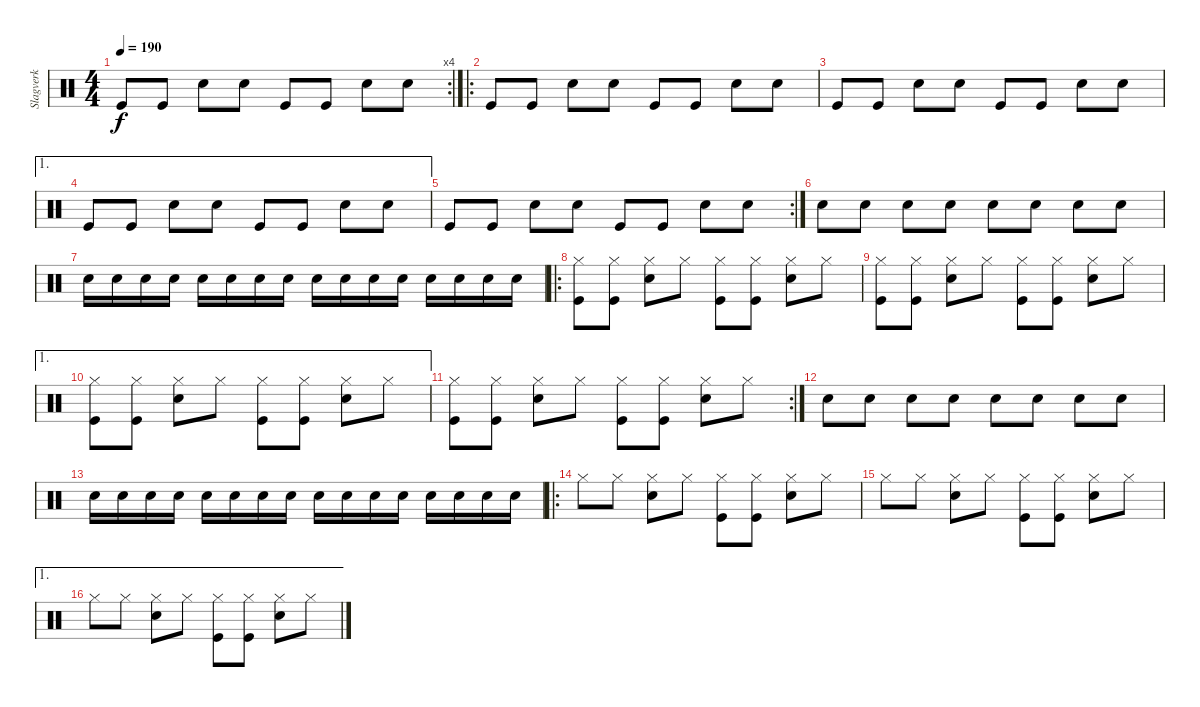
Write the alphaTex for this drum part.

\track ("Slagverk" "Slagverk") {instrument percussion}
\staff {score}
\articulation defaults
\rc 4
\ts (4 4)
\tempo 190
\clef neutral
\ks c "Kick (hit)".8{dy f} "Kick (hit)".8 "Snare (hit) 2".8 "Snare (hit) 2".8 "Kick (hit)".8 "Kick (hit)".8 "Snare (hit) 2".8 "Snare (hit) 2".8
|
\ro "Kick (hit)".8 "Kick (hit)".8 "Snare (hit) 2".8 "Snare (hit) 2".8 "Kick (hit)".8 "Kick (hit)".8 "Snare (hit) 2".8 "Snare (hit) 2".8
|
"Kick (hit)".8 "Kick (hit)".8 "Snare (hit) 2".8 "Snare (hit) 2".8 "Kick (hit)".8 "Kick (hit)".8 "Snare (hit) 2".8 "Snare (hit) 2".8 |
\ae 1 "Kick (hit)".8 "Kick (hit)".8 "Snare (hit) 2".8 "Snare (hit) 2".8 "Kick (hit)".8 "Kick (hit)".8 "Snare (hit) 2".8 "Snare (hit) 2".8
|
\rc 2 "Kick (hit)".8 "Kick (hit)".8 "Snare (hit) 2".8 "Snare (hit) 2".8 "Kick (hit)".8 "Kick (hit)".8 "Snare (hit) 2".8 "Snare (hit) 2".8
|
"Snare (hit) 2".8 "Snare (hit) 2".8 "Snare (hit) 2".8 "Snare (hit) 2".8 "Snare (hit) 2".8 "Snare (hit) 2".8 "Snare (hit) 2".8 "Snare (hit) 2".8 |
"Snare (hit) 2".16 "Snare (hit) 2".16 "Snare (hit) 2".16 "Snare (hit) 2".16 "Snare (hit) 2".16 "Snare (hit) 2".16 "Snare (hit) 2".16 "Snare (hit) 2".16 "Snare (hit) 2".16 "Snare (hit) 2".16 "Snare (hit) 2".16 "Snare (hit) 2".16 "Snare (hit) 2".16 "Snare (hit) 2".16 "Snare (hit) 2".16 "Snare (hit) 2".16 |
\ro
("Kick (hit)" "Hi-Hat (closed)").8 ("Kick (hit)" "Hi-Hat (closed)").8 ("Snare (hit) 2" "Hi-Hat (closed)").8 "Hi-Hat (closed)".8 ("Kick (hit)" "Hi-Hat (closed)").8 ("Kick (hit)" "Hi-Hat (closed)").8 ("Snare (hit) 2" "Hi-Hat (closed)").8 "Hi-Hat (closed)".8 |
("Kick (hit)" "Hi-Hat (closed)").8 ("Kick (hit)" "Hi-Hat (closed)").8 ("Snare (hit) 2" "Hi-Hat (closed)").8 "Hi-Hat (closed)".8 ("Kick (hit)" "Hi-Hat (closed)").8 ("Kick (hit)" "Hi-Hat (closed)").8 ("Snare (hit) 2" "Hi-Hat (closed)").8 "Hi-Hat (closed)".8 |
\ae 1
("Kick (hit)" "Hi-Hat (closed)").8 ("Kick (hit)" "Hi-Hat (closed)").8 ("Snare (hit) 2" "Hi-Hat (closed)").8 "Hi-Hat (closed)".8 ("Kick (hit)" "Hi-Hat (closed)").8 ("Kick (hit)" "Hi-Hat (closed)").8 ("Snare (hit) 2" "Hi-Hat (closed)").8 "Hi-Hat (closed)".8 |
\rc 2
("Kick (hit)" "Hi-Hat (closed)").8 ("Kick (hit)" "Hi-Hat (closed)").8 ("Snare (hit) 2" "Hi-Hat (closed)").8 "Hi-Hat (closed)".8 ("Kick (hit)" "Hi-Hat (closed)").8 ("Kick (hit)" "Hi-Hat (closed)").8 ("Snare (hit) 2" "Hi-Hat (closed)").8 "Hi-Hat (closed)".8 |
"Snare (hit) 2".8 "Snare (hit) 2".8 "Snare (hit) 2".8 "Snare (hit) 2".8 "Snare (hit) 2".8 "Snare (hit) 2".8 "Snare (hit) 2".8 "Snare (hit) 2".8 |
"Snare (hit) 2".16 "Snare (hit) 2".16 "Snare (hit) 2".16 "Snare (hit) 2".16 "Snare (hit) 2".16 "Snare (hit) 2".16 "Snare (hit) 2".16 "Snare (hit) 2".16 "Snare (hit) 2".16 "Snare (hit) 2".16 "Snare (hit) 2".16 "Snare (hit) 2".16 "Snare (hit) 2".16 "Snare (hit) 2".16 "Snare (hit) 2".16 "Snare (hit) 2".16 |
\ro "Hi-Hat (closed)".8 "Hi-Hat (closed)".8
("Snare (hit) 2" "Hi-Hat (closed)").8 "Hi-Hat (closed)".8 ("Kick (hit)" "Hi-Hat (closed)").8 ("Kick (hit)" "Hi-Hat (closed)").8 ("Snare (hit) 2" "Hi-Hat (closed)").8 "Hi-Hat (closed)".8 |
"Hi-Hat (closed)".8 "Hi-Hat (closed)".8 ("Snare (hit) 2" "Hi-Hat (closed)").8 "Hi-Hat (closed)".8 ("Kick (hit)" "Hi-Hat (closed)").8 ("Kick (hit)" "Hi-Hat (closed)").8 ("Snare (hit) 2" "Hi-Hat (closed)").8 "Hi-Hat (closed)".8 |
\ae 1 "Hi-Hat (closed)".8 "Hi-Hat (closed)".8
("Snare (hit) 2" "Hi-Hat (closed)").8 "Hi-Hat (closed)".8 ("Kick (hit)" "Hi-Hat (closed)").8 ("Kick (hit)" "Hi-Hat (closed)").8 ("Snare (hit) 2" "Hi-Hat (closed)").8 "Hi-Hat (closed)".8
